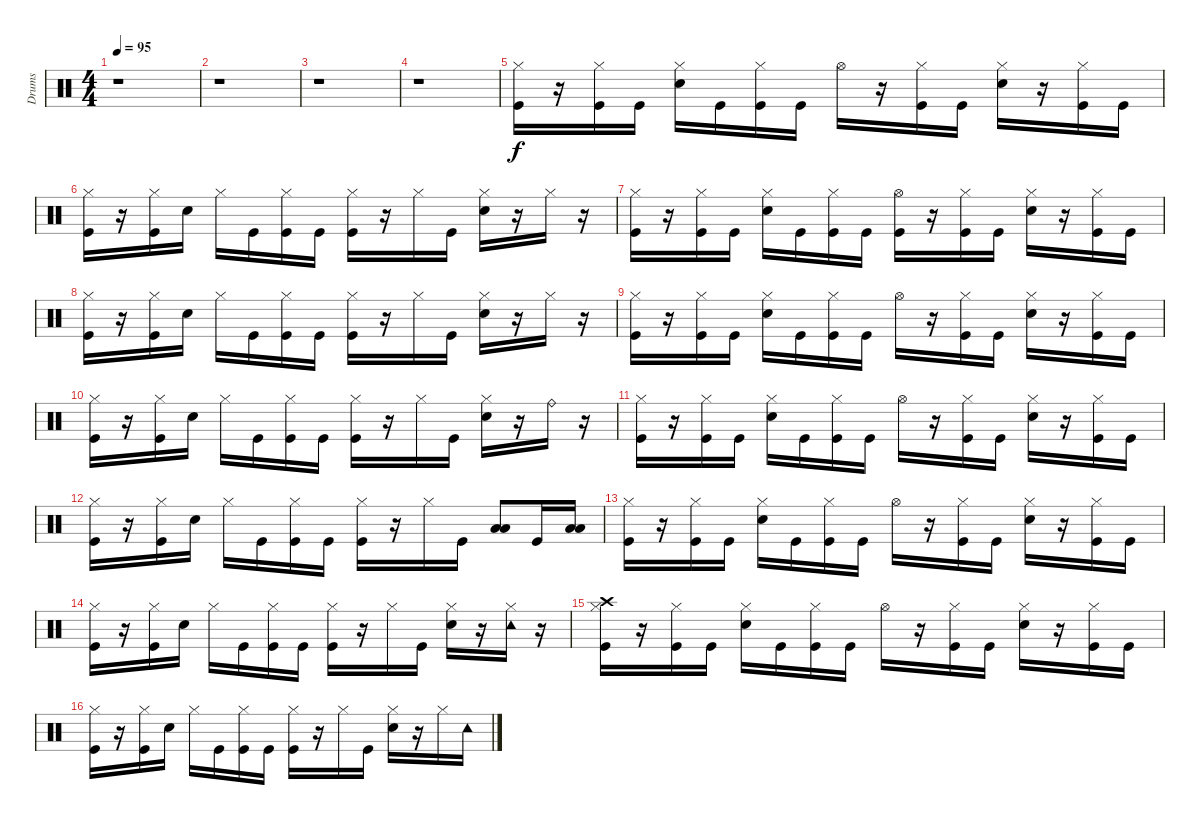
\track ("Drums" "Drums") {instrument percussion}
\staff {score}
\articulation defaults
\ts (4 4)
\tempo 95
\clef neutral
\ks c
r.1{dy f} |
r.1 |
r.1 |
r.1 |
("Hi-Hat (closed)" "Kick (hit)").16 r.16 ("Hi-Hat (closed)" "Kick (hit)").16 "Kick (hit)".16 ("Hi-Hat (closed)" "Snare (hit) 2").16 "Kick (hit)".16 ("Hi-Hat (closed)" "Kick (hit)").16 "Kick (hit)".16 "Hi-Hat (open)".16 r.16 ("Hi-Hat (closed)" "Kick (hit)").16 "Kick (hit)".16 ("Hi-Hat (closed)" "Snare (hit) 2").16 r.16 ("Hi-Hat (closed)" "Kick (hit)").16 "Kick (hit)".16 |
("Hi-Hat (closed)" "Kick (hit)").16 r.16 ("Hi-Hat (closed)" "Kick (hit)").16 "Snare (hit) 2".16 "Hi-Hat (closed)".16 "Kick (hit)".16 ("Hi-Hat (closed)" "Kick (hit)").16 "Kick (hit)".16 ("Hi-Hat (closed)" "Kick (hit)").16 r.16 "Hi-Hat (closed)".16 "Kick (hit)".16 ("Hi-Hat (closed)" "Snare (hit) 2").16 r.16 "Hi-Hat (closed)".16 r.16 |
("Hi-Hat (closed)" "Kick (hit)").16 r.16 ("Hi-Hat (closed)" "Kick (hit)").16 "Kick (hit)".16 ("Hi-Hat (closed)" "Snare (hit) 2").16 "Kick (hit)".16 ("Hi-Hat (closed)" "Kick (hit)").16 "Kick (hit)".16 ("Hi-Hat (open)" "Kick (hit)").16 r.16 ("Hi-Hat (closed)" "Kick (hit)").16 "Kick (hit)".16 ("Hi-Hat (closed)" "Snare (hit) 2").16 r.16 ("Hi-Hat (closed)" "Kick (hit)").16 "Kick (hit)".16 |
("Hi-Hat (closed)" "Kick (hit)").16 r.16 ("Hi-Hat (closed)" "Kick (hit)").16 "Snare (hit) 2".16 "Hi-Hat (closed)".16 "Kick (hit)".16 ("Hi-Hat (closed)" "Kick (hit)").16 "Kick (hit)".16 ("Hi-Hat (closed)" "Kick (hit)").16 r.16 "Hi-Hat (closed)".16 "Kick (hit)".16 ("Hi-Hat (closed)" "Snare (hit) 2").16 r.16 "Hi-Hat (closed)".16 r.16 |
("Hi-Hat (closed)" "Kick (hit)").16 r.16 ("Hi-Hat (closed)" "Kick (hit)").16 "Kick (hit)".16 ("Hi-Hat (closed)" "Snare (hit) 2").16 "Kick (hit)".16 ("Hi-Hat (closed)" "Kick (hit)").16 "Kick (hit)".16 "Hi-Hat (open)".16 r.16 ("Hi-Hat (closed)" "Kick (hit)").16 "Kick (hit)".16 ("Hi-Hat (closed)" "Snare (hit) 2").16 r.16 ("Hi-Hat (closed)" "Kick (hit)").16 "Kick (hit)".16 |
("Hi-Hat (closed)" "Kick (hit)").16 r.16 ("Hi-Hat (closed)" "Kick (hit)").16 "Snare (hit) 2".16 "Hi-Hat (closed)".16 "Kick (hit)".16 ("Hi-Hat (closed)" "Kick (hit)").16 "Kick (hit)".16 ("Hi-Hat (closed)" "Kick (hit)").16 r.16 "Hi-Hat (closed)".16 "Kick (hit)".16 ("Hi-Hat (closed)" "Snare (hit) 2").16 r.16 "Ride (bell)".16 r.16 |
("Hi-Hat (closed)" "Kick (hit)").16 r.16 ("Hi-Hat (closed)" "Kick (hit)").16 "Kick (hit)".16 ("Hi-Hat (closed)" "Snare (hit) 2").16 "Kick (hit)".16 ("Hi-Hat (closed)" "Kick (hit)").16 "Kick (hit)".16 "Hi-Hat (open)".16 r.16 ("Hi-Hat (closed)" "Kick (hit)").16 "Kick (hit)".16 ("Hi-Hat (closed)" "Snare (hit) 2").16 r.16 ("Hi-Hat (closed)" "Kick (hit)").16 "Kick (hit)".16 |
("Hi-Hat (closed)" "Kick (hit)").16 r.16 ("Hi-Hat (closed)" "Kick (hit)").16 "Snare (hit) 2".16 "Hi-Hat (closed)".16 "Kick (hit)".16 ("Hi-Hat (closed)" "Kick (hit)").16 "Kick (hit)".16 ("Hi-Hat (closed)" "Kick (hit)").16 r.16 "Hi-Hat (closed)".16 "Kick (hit)".16 ("Low Tom (hit)" "Low Tom (hit)").8 "Kick (hit)".16 ("Low Floor Tom (hit)" "Low Floor Tom (hit)").16 |
("Hi-Hat (closed)" "Kick (hit)").16 r.16 ("Hi-Hat (closed)" "Kick (hit)").16 "Kick (hit)".16 ("Hi-Hat (closed)" "Snare (hit) 2").16 "Kick (hit)".16 ("Hi-Hat (closed)" "Kick (hit)").16 "Kick (hit)".16 "Hi-Hat (open)".16 r.16 ("Hi-Hat (closed)" "Kick (hit)").16 "Kick (hit)".16 ("Hi-Hat (closed)" "Snare (hit) 2").16 r.16 ("Hi-Hat (closed)" "Kick (hit)").16 "Kick (hit)".16 |
("Hi-Hat (closed)" "Kick (hit)").16 r.16 ("Hi-Hat (closed)" "Kick (hit)").16 "Snare (hit) 2".16 "Hi-Hat (closed)".16 "Kick (hit)".16 ("Hi-Hat (closed)" "Kick (hit)").16 "Kick (hit)".16 ("Hi-Hat (closed)" "Kick (hit)").16 r.16 "Hi-Hat (closed)".16 "Kick (hit)".16 ("Hi-Hat (closed)" "Snare (hit) 2").16 r.16 ("Tambourine (hit)" "Hi-Hat (closed)").16 r.16 |
("Crash high (hit)" "Hi-Hat (closed)" "Kick (hit)").16 r.16 ("Hi-Hat (closed)" "Kick (hit)").16 "Kick (hit)".16 ("Hi-Hat (closed)" "Snare (hit) 2").16 "Kick (hit)".16 ("Hi-Hat (closed)" "Kick (hit)").16 "Kick (hit)".16 "Hi-Hat (open)".16 r.16 ("Hi-Hat (closed)" "Kick (hit)").16 "Kick (hit)".16 ("Hi-Hat (closed)" "Snare (hit) 2").16 r.16 ("Hi-Hat (closed)" "Kick (hit)").16 "Kick (hit)".16 |
("Hi-Hat (closed)" "Kick (hit)").16 r.16 ("Hi-Hat (closed)" "Kick (hit)").16 "Snare (hit) 2".16 "Hi-Hat (closed)".16 "Kick (hit)".16 ("Hi-Hat (closed)" "Kick (hit)").16 "Kick (hit)".16 ("Hi-Hat (closed)" "Kick (hit)").16 r.16 "Hi-Hat (closed)".16 "Kick (hit)".16 ("Hi-Hat (closed)" "Snare (hit) 2").16 r.16 "Hi-Hat (closed)".16 "Tambourine (hit)".16
